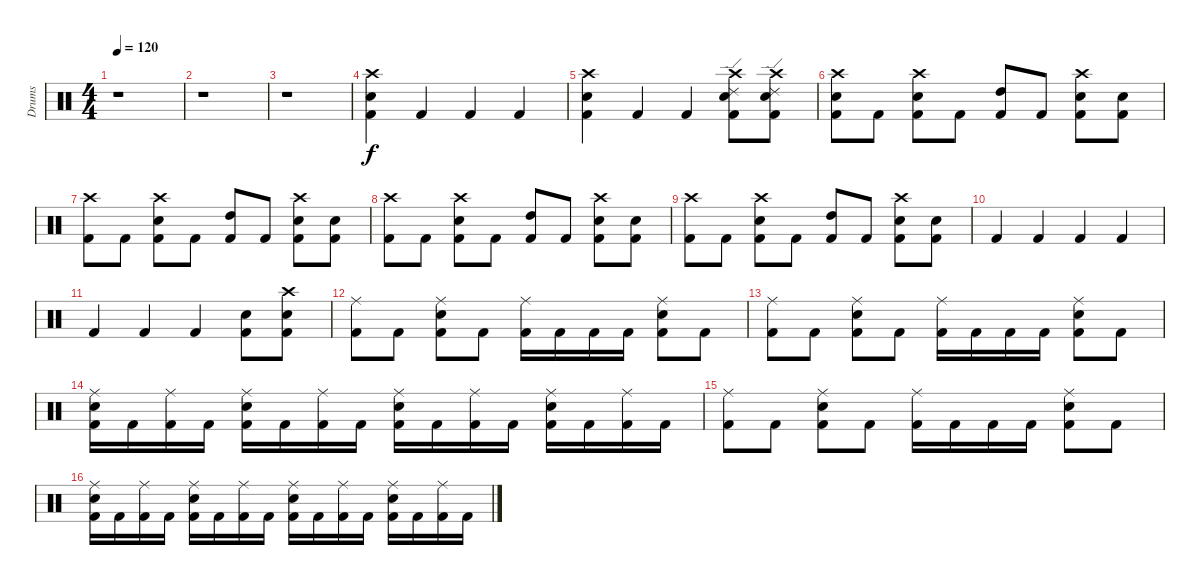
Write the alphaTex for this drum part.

\track ("Drums" "Drums") {instrument percussion}
\staff {score}
\articulation defaults
\ts (4 4)
\tempo 120
\clef neutral
\ks c
r.1{dy f} |
r.1 |
r.1 |
("Crash high (hit)" "Snare (hit) 2" "Kick (hit) 2").4 "Kick (hit) 2".4 "Kick (hit) 2".4 "Kick (hit) 2".4 |
("Crash high (hit)" "Snare (hit) 2" "Kick (hit) 2").4 "Kick (hit) 2".4 "Kick (hit) 2".4 ("Crash high (hit)" "Ride (edge) 2" "Snare (hit) 2" "Kick (hit) 2").8 ("Ride (edge) 2" "Crash high (hit)" "Snare (hit) 2" "Kick (hit) 2").8 |
("Crash high (hit)" "Snare (hit) 2" "Kick (hit) 2").8 "Kick (hit) 2".8 ("Crash high (hit)" "Snare (hit) 2" "Kick (hit) 2").8 "Kick (hit) 2".8 ("High Tom (hit)" "Kick (hit) 2").8 "Kick (hit) 2".8 ("Crash high (hit)" "Snare (hit) 2" "Kick (hit) 2").8 ("Snare (hit) 2" "Kick (hit) 2").8 |
("Crash high (hit)" "Kick (hit) 2").8 "Kick (hit) 2".8 ("Crash high (hit)" "Snare (hit) 2" "Kick (hit) 2").8 "Kick (hit) 2".8 ("High Tom (hit)" "Kick (hit) 2").8 "Kick (hit) 2".8 ("Crash high (hit)" "Snare (hit) 2" "Kick (hit) 2").8 ("Snare (hit) 2" "Kick (hit) 2").8 |
("Crash high (hit)" "Kick (hit) 2").8 "Kick (hit) 2".8 ("Crash high (hit)" "Snare (hit) 2" "Kick (hit) 2").8 "Kick (hit) 2".8 ("High Tom (hit)" "Kick (hit) 2").8 "Kick (hit) 2".8 ("Crash high (hit)" "Snare (hit) 2" "Kick (hit) 2").8 ("Snare (hit) 2" "Kick (hit) 2").8 |
("Crash high (hit)" "Kick (hit) 2").8 "Kick (hit) 2".8 ("Crash high (hit)" "Snare (hit) 2" "Kick (hit) 2").8 "Kick (hit) 2".8 ("High Tom (hit)" "Kick (hit) 2").8 "Kick (hit) 2".8 ("Crash high (hit)" "Snare (hit) 2" "Kick (hit) 2").8 ("Snare (hit) 2" "Kick (hit) 2").8 |
"Kick (hit) 2".4 "Kick (hit) 2".4 "Kick (hit) 2".4 "Kick (hit) 2".4 |
"Kick (hit) 2".4 "Kick (hit) 2".4 "Kick (hit) 2".4 ("Snare (hit) 2" "Kick (hit) 2").8 ("Crash high (hit)" "Snare (hit) 2" "Kick (hit) 2").8 |
("Ride (middle)" "Kick (hit) 2").8 "Kick (hit) 2".8 ("Ride (middle)" "Snare (hit) 2" "Kick (hit) 2").8 "Kick (hit) 2".8 ("Ride (middle)" "Kick (hit) 2").16 "Kick (hit) 2".16 "Kick (hit) 2".16 "Kick (hit) 2".16 ("Ride (middle)" "Snare (hit) 2" "Kick (hit) 2").8 "Kick (hit) 2".8 |
("Ride (middle)" "Kick (hit) 2").8 "Kick (hit) 2".8 ("Ride (middle)" "Snare (hit) 2" "Kick (hit) 2").8 "Kick (hit) 2".8 ("Ride (middle)" "Kick (hit) 2").16 "Kick (hit) 2".16 "Kick (hit) 2".16 "Kick (hit) 2".16 ("Ride (middle)" "Snare (hit) 2" "Kick (hit) 2").8 "Kick (hit) 2".8 |
("Ride (middle)" "Snare (hit) 2" "Kick (hit) 2").16 "Kick (hit) 2".16 ("Ride (middle)" "Kick (hit) 2").16 "Kick (hit) 2".16 ("Ride (middle)" "Snare (hit) 2" "Kick (hit) 2").16 "Kick (hit) 2".16 ("Ride (middle)" "Kick (hit) 2").16 "Kick (hit) 2".16 ("Ride (middle)" "Snare (hit) 2" "Kick (hit) 2").16 "Kick (hit) 2".16 ("Ride (middle)" "Kick (hit) 2").16 "Kick (hit) 2".16 ("Ride (middle)" "Snare (hit) 2" "Kick (hit) 2").16 "Kick (hit) 2".16 ("Ride (middle)" "Kick (hit) 2").16 "Kick (hit) 2".16 |
("Ride (middle)" "Kick (hit) 2").8 "Kick (hit) 2".8 ("Ride (middle)" "Snare (hit) 2" "Kick (hit) 2").8 "Kick (hit) 2".8 ("Ride (middle)" "Kick (hit) 2").16 "Kick (hit) 2".16 "Kick (hit) 2".16 "Kick (hit) 2".16 ("Ride (middle)" "Snare (hit) 2" "Kick (hit) 2").8 "Kick (hit) 2".8 |
("Ride (middle)" "Snare (hit) 2" "Kick (hit) 2").16 "Kick (hit) 2".16 ("Ride (middle)" "Kick (hit) 2").16 "Kick (hit) 2".16 ("Ride (middle)" "Snare (hit) 2" "Kick (hit) 2").16 "Kick (hit) 2".16 ("Ride (middle)" "Kick (hit) 2").16 "Kick (hit) 2".16 ("Ride (middle)" "Snare (hit) 2" "Kick (hit) 2").16 "Kick (hit) 2".16 ("Ride (middle)" "Kick (hit) 2").16 "Kick (hit) 2".16 ("Ride (middle)" "Snare (hit) 2" "Kick (hit) 2").16 "Kick (hit) 2".16 ("Ride (middle)" "Kick (hit) 2").16 "Kick (hit) 2".16
